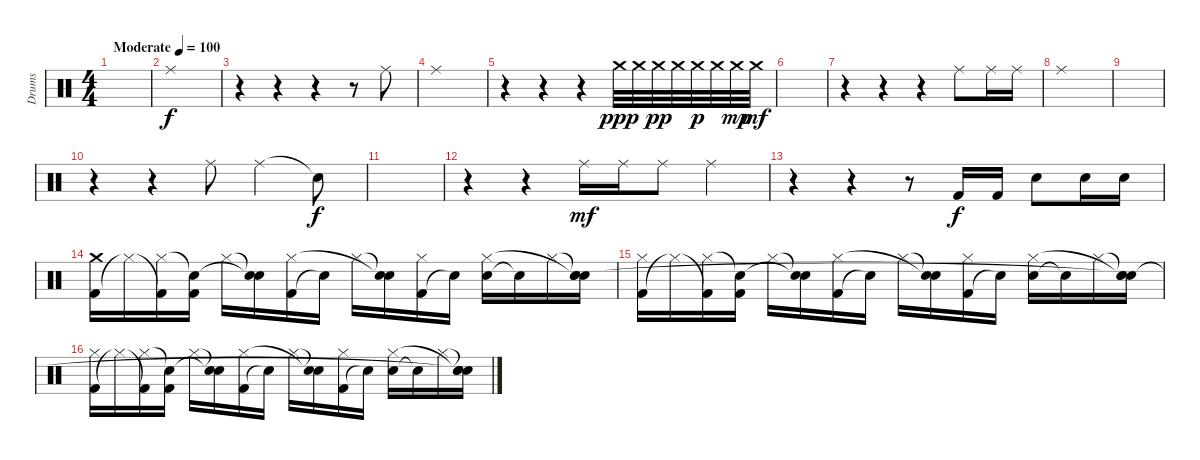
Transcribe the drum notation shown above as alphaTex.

\track ("Drums" "Drums") {instrument percussion}
\staff {score}
\articulation defaults
\ts (4 4)
\tempo (100 "Moderate")
\clef neutral
\ks c
|
"Ride (middle)".1 |
r.4 r.4 r.4 r.8 "Ride (middle)".8 |
"Ride (middle)".1 |
r.4 r.4 r.4 "Crash medium (hit)".32{dy ppp} "Crash medium (hit)".32 "Crash medium (hit)".32{dy pp} "Crash medium (hit)".32 "Crash medium (hit)".32{dy p} "Crash medium (hit)".32 "Crash medium (hit)".32{dy mp} "Crash medium (hit)".32{dy mf} |
|
r.4 r.4 r.4 "Ride (middle)".8 "Ride (middle)".16 "Ride (middle)".16 |
"Ride (middle)".1 |
|
r.4 r.4 "Ride (middle)".8 "Ride (middle)".4 "Snare (hit)"{t}.8{dy f} |
|
r.4 r.4 "Ride (middle)".16{dy mf} "Ride (middle)".16 "Ride (middle)".8 "Ride (middle)".4 |
r.4 r.4 r.8 "Kick (hit) 2".16{dy f} "Kick (hit) 2".16 "Snare (hit) 2".8 "Snare (hit) 2".16 "Snare (hit) 2".16 |
("Kick (hit) 2" "Crash medium (hit)").16 "Hi-Hat (closed)"{t}.16 ("Kick (hit) 2"{t} "Hi-Hat (closed)").16 ("Kick (hit) 2" "Snare (hit)"{t}).16 "Hi-Hat (closed)".16 ("Snare (hit)"{t} "Snare (hit)"{t}).16 ("Kick (hit) 2" "Hi-Hat (closed)").16 "Snare (hit)"{t}.16 "Hi-Hat (closed)".16 ("Snare (hit)"{t} "Snare (hit)"{t}).16 ("Kick (hit) 2" "Hi-Hat (closed)").16 "Snare (hit)"{t}.16 ("Snare (hit) 2" "Hi-Hat (closed)").16 "Snare (hit)"{t}.16 "Hi-Hat (closed)".16 ("Snare (hit)"{t} "Snare (hit)"{t} "Snare (hit)").16 |
("Kick (hit) 2" "Hi-Hat (closed)").16 "Hi-Hat (closed)"{t}.16 ("Kick (hit) 2"{t} "Hi-Hat (closed)").16 ("Kick (hit) 2" "Snare (hit)"{t}).16 "Hi-Hat (closed)".16 ("Snare (hit)"{t} "Snare (hit)"{t}).16 ("Kick (hit) 2" "Hi-Hat (closed)").16 "Snare (hit)"{t}.16 "Hi-Hat (closed)".16 ("Snare (hit)"{t} "Snare (hit)"{t}).16 ("Kick (hit) 2" "Hi-Hat (closed)").16 "Snare (hit)"{t}.16 ("Snare (hit) 2" "Hi-Hat (closed)").16 "Snare (hit)"{t}.16 "Hi-Hat (closed)".16 ("Snare (hit)"{t} "Snare (hit)"{t} "Snare (hit)"{t}).16 |
("Kick (hit) 2" "Hi-Hat (closed)").16 "Hi-Hat (closed)"{t}.16 ("Kick (hit) 2"{t} "Hi-Hat (closed)").16 ("Kick (hit) 2" "Snare (hit)"{t}).16 "Hi-Hat (closed)".16 ("Snare (hit)"{t} "Snare (hit)"{t}).16 ("Kick (hit) 2" "Hi-Hat (closed)").16 "Snare (hit)"{t}.16 "Hi-Hat (closed)".16 ("Snare (hit)"{t} "Snare (hit)"{t}).16 ("Kick (hit) 2" "Hi-Hat (closed)").16 "Snare (hit)"{t}.16 ("Snare (hit) 2" "Hi-Hat (closed)").16 "Snare (hit)"{t}.16 "Hi-Hat (closed)".16 ("Snare (hit)"{t} "Snare (hit)"{t} "Snare (hit)"{t}).16
